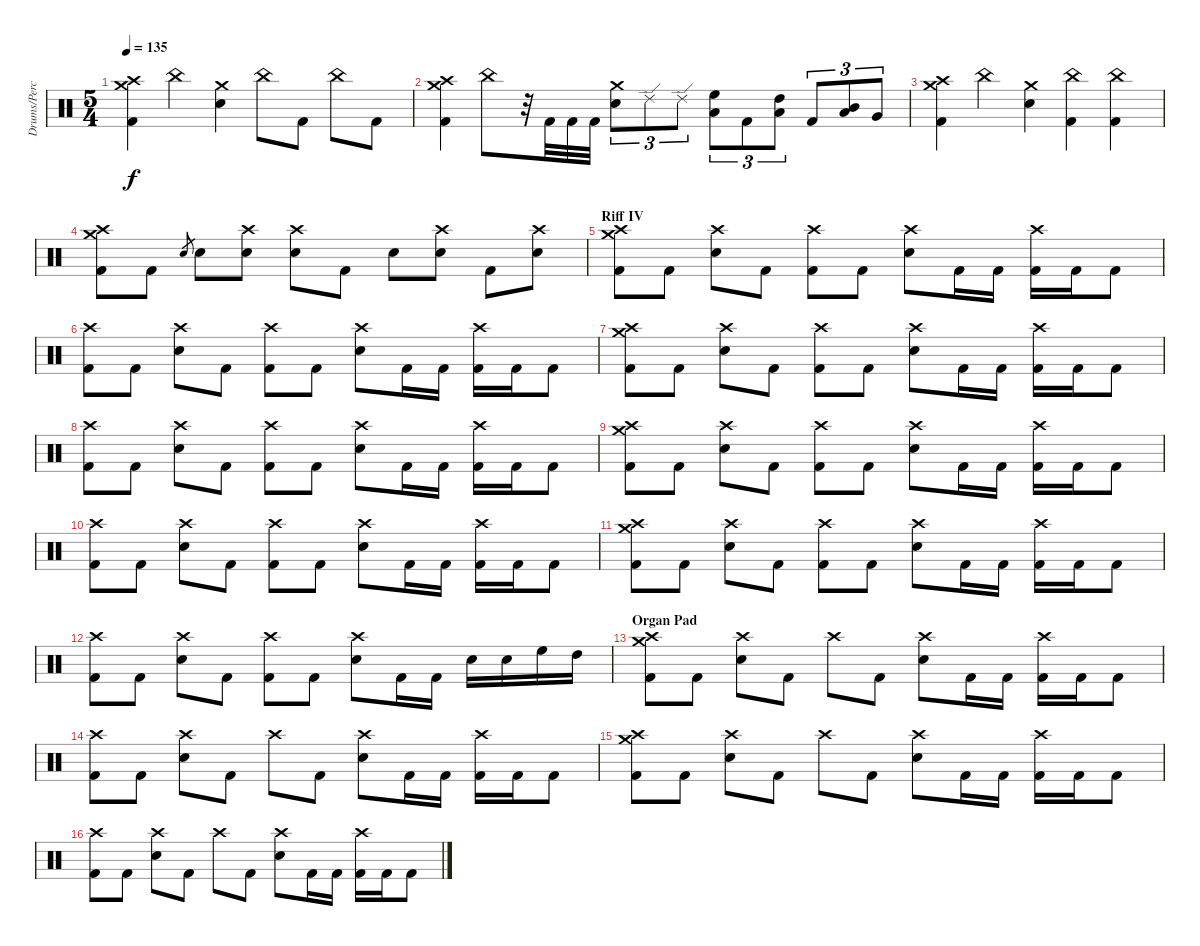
\track ("Drums/Percussion" "Drums/Perc") {instrument percussion}
\staff {score}
\articulation defaults
\ts (5 4)
\tempo 135
\clef neutral
\ks c
("Crash medium (hit)" "Crash high (hit)" "Kick (hit) 2").4{dy f} "China (hit)".4 ("Crash medium (hit)" "Snare (hit) 2").4 "China (hit)".8 "Kick (hit) 2".8 "China (hit)".8 "Kick (hit) 2".8 |
("Crash medium (hit)" "Crash high (hit)" "Kick (hit) 2").4 "China (hit)".8 r.32 "Kick (hit) 2".32 "Kick (hit) 2".32 "Kick (hit) 2".32 ("Crash medium (hit)" "Snare (hit) 2").8{tu (3 2)} "Ride (edge) 2".8{tu (3 2)} "Ride (edge) 2".8{tu (3 2)} ("High Floor Tom (hit)" "Low Tom (hit)").8{tu (3 2)} "Kick (hit) 2".8{tu (3 2)} ("High Tom (hit)" "Low Tom (hit)").8{tu (3 2)} "Kick (hit) 2".8{tu (3 2)} ("Mid Tom (hit)" "Low Tom (hit)").8{tu (3 2)} "Very Low Tom (hit)".8{tu (3 2)} |
("Crash medium (hit)" "Crash high (hit)" "Kick (hit) 2").4 "China (hit)".4 ("Crash medium (hit)" "Snare (hit) 2").4 ("China (hit)" "Kick (hit) 2").4 ("China (hit)" "Kick (hit) 2").4 |
("Crash medium (hit)" "Crash high (hit)" "Kick (hit) 2").8 "Kick (hit) 2".8 "Snare (hit) 2".8{gr} "Snare (hit) 2".8 ("Crash high (hit)" "Snare (hit) 2").8 ("Crash high (hit)" "Snare (hit) 2").8 "Kick (hit) 2".8 "Snare (hit) 2".8 ("Crash high (hit)" "Snare (hit) 2").8 "Kick (hit) 2".8 ("Crash high (hit)" "Snare (hit) 2").8 |
\section ("" "Riff IV")
("Crash medium (hit)" "Crash high (hit)" "Kick (hit) 2").8 "Kick (hit) 2".8 ("Crash high (hit)" "Snare (hit) 2").8 "Kick (hit) 2".8 ("Crash high (hit)" "Kick (hit) 2").8 "Kick (hit) 2".8 ("Crash high (hit)" "Snare (hit) 2").8 "Kick (hit) 2".16 "Kick (hit) 2".16 ("Crash high (hit)" "Kick (hit) 2").16 "Kick (hit) 2".16 "Kick (hit) 2".8 |
("Crash high (hit)" "Kick (hit) 2").8 "Kick (hit) 2".8 ("Crash high (hit)" "Snare (hit) 2").8 "Kick (hit) 2".8 ("Crash high (hit)" "Kick (hit) 2").8 "Kick (hit) 2".8 ("Crash high (hit)" "Snare (hit) 2").8 "Kick (hit) 2".16 "Kick (hit) 2".16 ("Crash high (hit)" "Kick (hit) 2").16 "Kick (hit) 2".16 "Kick (hit) 2".8 |
("Crash medium (hit)" "Crash high (hit)" "Kick (hit) 2").8 "Kick (hit) 2".8 ("Crash high (hit)" "Snare (hit) 2").8 "Kick (hit) 2".8 ("Crash high (hit)" "Kick (hit) 2").8 "Kick (hit) 2".8 ("Crash high (hit)" "Snare (hit) 2").8 "Kick (hit) 2".16 "Kick (hit) 2".16 ("Crash high (hit)" "Kick (hit) 2").16 "Kick (hit) 2".16 "Kick (hit) 2".8 |
("Crash high (hit)" "Kick (hit) 2").8 "Kick (hit) 2".8 ("Crash high (hit)" "Snare (hit) 2").8 "Kick (hit) 2".8 ("Crash high (hit)" "Kick (hit) 2").8 "Kick (hit) 2".8 ("Crash high (hit)" "Snare (hit) 2").8 "Kick (hit) 2".16 "Kick (hit) 2".16 ("Crash high (hit)" "Kick (hit) 2").16 "Kick (hit) 2".16 "Kick (hit) 2".8 |
("Crash medium (hit)" "Crash high (hit)" "Kick (hit) 2").8 "Kick (hit) 2".8 ("Crash high (hit)" "Snare (hit) 2").8 "Kick (hit) 2".8 ("Crash high (hit)" "Kick (hit) 2").8 "Kick (hit) 2".8 ("Crash high (hit)" "Snare (hit) 2").8 "Kick (hit) 2".16 "Kick (hit) 2".16 ("Crash high (hit)" "Kick (hit) 2").16 "Kick (hit) 2".16 "Kick (hit) 2".8 |
("Crash high (hit)" "Kick (hit) 2").8 "Kick (hit) 2".8 ("Crash high (hit)" "Snare (hit) 2").8 "Kick (hit) 2".8 ("Crash high (hit)" "Kick (hit) 2").8 "Kick (hit) 2".8 ("Crash high (hit)" "Snare (hit) 2").8 "Kick (hit) 2".16 "Kick (hit) 2".16 ("Crash high (hit)" "Kick (hit) 2").16 "Kick (hit) 2".16 "Kick (hit) 2".8 |
("Crash medium (hit)" "Crash high (hit)" "Kick (hit) 2").8 "Kick (hit) 2".8 ("Crash high (hit)" "Snare (hit) 2").8 "Kick (hit) 2".8 ("Crash high (hit)" "Kick (hit) 2").8 "Kick (hit) 2".8 ("Crash high (hit)" "Snare (hit) 2").8 "Kick (hit) 2".16 "Kick (hit) 2".16 ("Crash high (hit)" "Kick (hit) 2").16 "Kick (hit) 2".16 "Kick (hit) 2".8 |
("Crash high (hit)" "Kick (hit) 2").8 "Kick (hit) 2".8 ("Crash high (hit)" "Snare (hit) 2").8 "Kick (hit) 2".8 ("Crash high (hit)" "Kick (hit) 2").8 "Kick (hit) 2".8 ("Crash high (hit)" "Snare (hit) 2").8 "Kick (hit) 2".16 "Kick (hit) 2".16 "Snare (hit) 2".16 "Snare (hit) 2".16 "High Floor Tom (hit)".16 "High Tom (hit)".16 |
\section ("" "Organ Pad")
("Crash medium (hit)" "Crash high (hit)" "Kick (hit) 2").8 "Kick (hit) 2".8 ("Crash high (hit)" "Snare (hit) 2").8 "Kick (hit) 2".8 "Crash high (hit)".8 "Kick (hit) 2".8 ("Crash high (hit)" "Snare (hit) 2").8 "Kick (hit) 2".16 "Kick (hit) 2".16 ("Crash high (hit)" "Kick (hit) 2").16 "Kick (hit) 2".16 "Kick (hit) 2".8 |
("Crash high (hit)" "Kick (hit) 2").8 "Kick (hit) 2".8 ("Crash high (hit)" "Snare (hit) 2").8 "Kick (hit) 2".8 "Crash high (hit)".8 "Kick (hit) 2".8 ("Crash high (hit)" "Snare (hit) 2").8 "Kick (hit) 2".16 "Kick (hit) 2".16 ("Crash high (hit)" "Kick (hit) 2").16 "Kick (hit) 2".16 "Kick (hit) 2".8 |
("Crash medium (hit)" "Crash high (hit)" "Kick (hit) 2").8 "Kick (hit) 2".8 ("Crash high (hit)" "Snare (hit) 2").8 "Kick (hit) 2".8 "Crash high (hit)".8 "Kick (hit) 2".8 ("Crash high (hit)" "Snare (hit) 2").8 "Kick (hit) 2".16 "Kick (hit) 2".16 ("Crash high (hit)" "Kick (hit) 2").16 "Kick (hit) 2".16 "Kick (hit) 2".8 |
("Crash high (hit)" "Kick (hit) 2").8 "Kick (hit) 2".8 ("Crash high (hit)" "Snare (hit) 2").8 "Kick (hit) 2".8 "Crash high (hit)".8 "Kick (hit) 2".8 ("Crash high (hit)" "Snare (hit) 2").8 "Kick (hit) 2".16 "Kick (hit) 2".16 ("Crash high (hit)" "Kick (hit) 2").16 "Kick (hit) 2".16 "Kick (hit) 2".8
